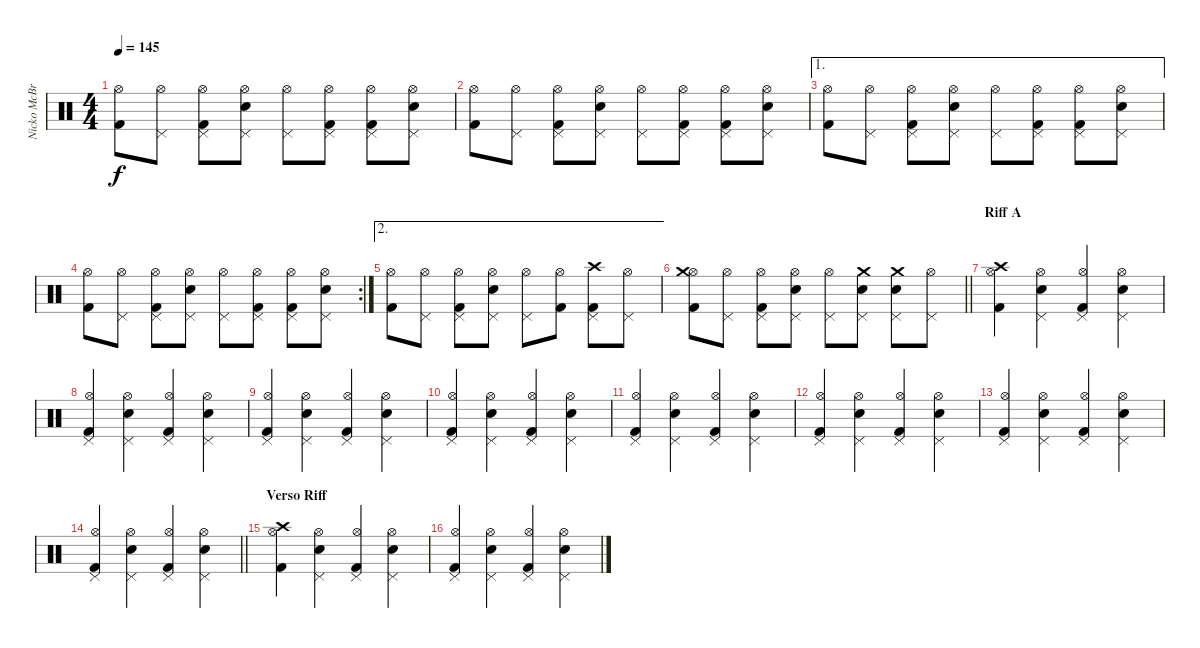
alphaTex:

\track ("Nicko McBrain" "Nicko McBr") {instrument percussion}
\staff {score}
\articulation defaults
\ts (4 4)
\tempo 145
\clef neutral
\ks c
("Kick (hit) 2" "Hi-Hat (open)").8{dy f} ("Pedal Hi-Hat (hit)" "Hi-Hat (open)").8 ("Kick (hit) 2" "Pedal Hi-Hat (hit)" "Hi-Hat (open)").8 ("Snare (hit) 2" "Pedal Hi-Hat (hit)" "Hi-Hat (open)").8 ("Pedal Hi-Hat (hit)" "Hi-Hat (open)").8 ("Kick (hit) 2" "Pedal Hi-Hat (hit)" "Hi-Hat (open)").8 ("Kick (hit) 2" "Pedal Hi-Hat (hit)" "Hi-Hat (open)").8 ("Snare (hit) 2" "Pedal Hi-Hat (hit)" "Hi-Hat (open)").8 |
("Kick (hit) 2" "Hi-Hat (open)").8 ("Pedal Hi-Hat (hit)" "Hi-Hat (open)").8 ("Kick (hit) 2" "Pedal Hi-Hat (hit)" "Hi-Hat (open)").8 ("Snare (hit) 2" "Pedal Hi-Hat (hit)" "Hi-Hat (open)").8 ("Pedal Hi-Hat (hit)" "Hi-Hat (open)").8 ("Kick (hit) 2" "Pedal Hi-Hat (hit)" "Hi-Hat (open)").8 ("Kick (hit) 2" "Pedal Hi-Hat (hit)" "Hi-Hat (open)").8 ("Snare (hit) 2" "Pedal Hi-Hat (hit)" "Hi-Hat (open)").8 |
\ae 1
("Kick (hit) 2" "Hi-Hat (open)").8 ("Pedal Hi-Hat (hit)" "Hi-Hat (open)").8 ("Kick (hit) 2" "Pedal Hi-Hat (hit)" "Hi-Hat (open)").8 ("Snare (hit) 2" "Pedal Hi-Hat (hit)" "Hi-Hat (open)").8 ("Pedal Hi-Hat (hit)" "Hi-Hat (open)").8 ("Kick (hit) 2" "Pedal Hi-Hat (hit)" "Hi-Hat (open)").8 ("Kick (hit) 2" "Pedal Hi-Hat (hit)" "Hi-Hat (open)").8 ("Snare (hit) 2" "Pedal Hi-Hat (hit)" "Hi-Hat (open)").8 |
\rc 2
("Kick (hit) 2" "Hi-Hat (open)").8 ("Pedal Hi-Hat (hit)" "Hi-Hat (open)").8 ("Kick (hit) 2" "Pedal Hi-Hat (hit)" "Hi-Hat (open)").8 ("Snare (hit) 2" "Pedal Hi-Hat (hit)" "Hi-Hat (open)").8 ("Pedal Hi-Hat (hit)" "Hi-Hat (open)").8 ("Kick (hit) 2" "Pedal Hi-Hat (hit)" "Hi-Hat (open)").8 ("Kick (hit) 2" "Pedal Hi-Hat (hit)" "Hi-Hat (open)").8 ("Snare (hit) 2" "Pedal Hi-Hat (hit)" "Hi-Hat (open)").8 |
\ae 2
("Kick (hit) 2" "Hi-Hat (open)").8 ("Pedal Hi-Hat (hit)" "Hi-Hat (open)").8 ("Kick (hit) 2" "Pedal Hi-Hat (hit)" "Hi-Hat (open)").8 ("Snare (hit) 2" "Pedal Hi-Hat (hit)" "Hi-Hat (open)").8 ("Pedal Hi-Hat (hit)" "Hi-Hat (open)").8 ("Kick (hit) 2" "Hi-Hat (open)").8 ("Kick (hit) 2" "Pedal Hi-Hat (hit)" "Crash high (hit)").8 ("Pedal Hi-Hat (hit)" "Hi-Hat (open)").8 |
\barLineRight lightlight
("Kick (hit) 2" "Hi-Hat (open)" "Crash medium (hit)").8 ("Pedal Hi-Hat (hit)" "Hi-Hat (open)").8 ("Kick (hit) 2" "Pedal Hi-Hat (hit)" "Hi-Hat (open)").8 ("Snare (hit) 2" "Pedal Hi-Hat (hit)" "Hi-Hat (open)").8 ("Pedal Hi-Hat (hit)" "Hi-Hat (open)").8 ("Snare (hit) 2" "Pedal Hi-Hat (hit)" "Crash medium (hit)").8 ("Snare (hit) 2" "Pedal Hi-Hat (hit)" "Crash medium (hit)").8 ("Pedal Hi-Hat (hit)" "Hi-Hat (open)").8 |
\section ("" "Riff A")
("Kick (hit) 2" "Hi-Hat (open)" "Crash high (hit)").4 ("Snare (hit) 2" "Pedal Hi-Hat (hit)" "Hi-Hat (open)").4 ("Kick (hit) 2" "Pedal Hi-Hat (hit)" "Hi-Hat (open)").4 ("Snare (hit) 2" "Pedal Hi-Hat (hit)" "Hi-Hat (open)").4 |
("Kick (hit) 2" "Pedal Hi-Hat (hit)" "Hi-Hat (open)").4 ("Snare (hit) 2" "Pedal Hi-Hat (hit)" "Hi-Hat (open)").4 ("Kick (hit) 2" "Pedal Hi-Hat (hit)" "Hi-Hat (open)").4 ("Snare (hit) 2" "Pedal Hi-Hat (hit)" "Hi-Hat (open)").4 |
("Kick (hit) 2" "Pedal Hi-Hat (hit)" "Hi-Hat (open)").4 ("Snare (hit) 2" "Pedal Hi-Hat (hit)" "Hi-Hat (open)").4 ("Kick (hit) 2" "Pedal Hi-Hat (hit)" "Hi-Hat (open)").4 ("Snare (hit) 2" "Pedal Hi-Hat (hit)" "Hi-Hat (open)").4 |
("Kick (hit) 2" "Pedal Hi-Hat (hit)" "Hi-Hat (open)").4 ("Snare (hit) 2" "Pedal Hi-Hat (hit)" "Hi-Hat (open)").4 ("Kick (hit) 2" "Pedal Hi-Hat (hit)" "Hi-Hat (open)").4 ("Snare (hit) 2" "Pedal Hi-Hat (hit)" "Hi-Hat (open)").4 |
("Kick (hit) 2" "Pedal Hi-Hat (hit)" "Hi-Hat (open)").4 ("Snare (hit) 2" "Pedal Hi-Hat (hit)" "Hi-Hat (open)").4 ("Kick (hit) 2" "Pedal Hi-Hat (hit)" "Hi-Hat (open)").4 ("Snare (hit) 2" "Pedal Hi-Hat (hit)" "Hi-Hat (open)").4 |
("Kick (hit) 2" "Pedal Hi-Hat (hit)" "Hi-Hat (open)").4 ("Snare (hit) 2" "Pedal Hi-Hat (hit)" "Hi-Hat (open)").4 ("Kick (hit) 2" "Pedal Hi-Hat (hit)" "Hi-Hat (open)").4 ("Snare (hit) 2" "Pedal Hi-Hat (hit)" "Hi-Hat (open)").4 |
("Kick (hit) 2" "Pedal Hi-Hat (hit)" "Hi-Hat (open)").4 ("Snare (hit) 2" "Pedal Hi-Hat (hit)" "Hi-Hat (open)").4 ("Kick (hit) 2" "Pedal Hi-Hat (hit)" "Hi-Hat (open)").4 ("Snare (hit) 2" "Pedal Hi-Hat (hit)" "Hi-Hat (open)").4 |
\barLineRight lightlight
("Kick (hit) 2" "Pedal Hi-Hat (hit)" "Hi-Hat (open)").4 ("Snare (hit) 2" "Pedal Hi-Hat (hit)" "Hi-Hat (open)").4 ("Kick (hit) 2" "Pedal Hi-Hat (hit)" "Hi-Hat (open)").4 ("Snare (hit) 2" "Pedal Hi-Hat (hit)" "Hi-Hat (open)").4 |
\section ("" "Verso Riff")
("Kick (hit) 2" "Hi-Hat (open)" "Crash high (hit)").4 ("Snare (hit) 2" "Pedal Hi-Hat (hit)" "Hi-Hat (open)").4 ("Kick (hit) 2" "Pedal Hi-Hat (hit)" "Hi-Hat (open)").4 ("Snare (hit) 2" "Pedal Hi-Hat (hit)" "Hi-Hat (open)").4 |
("Kick (hit) 2" "Pedal Hi-Hat (hit)" "Hi-Hat (open)").4 ("Snare (hit) 2" "Pedal Hi-Hat (hit)" "Hi-Hat (open)").4 ("Kick (hit) 2" "Pedal Hi-Hat (hit)" "Hi-Hat (open)").4 ("Snare (hit) 2" "Pedal Hi-Hat (hit)" "Hi-Hat (open)").4
